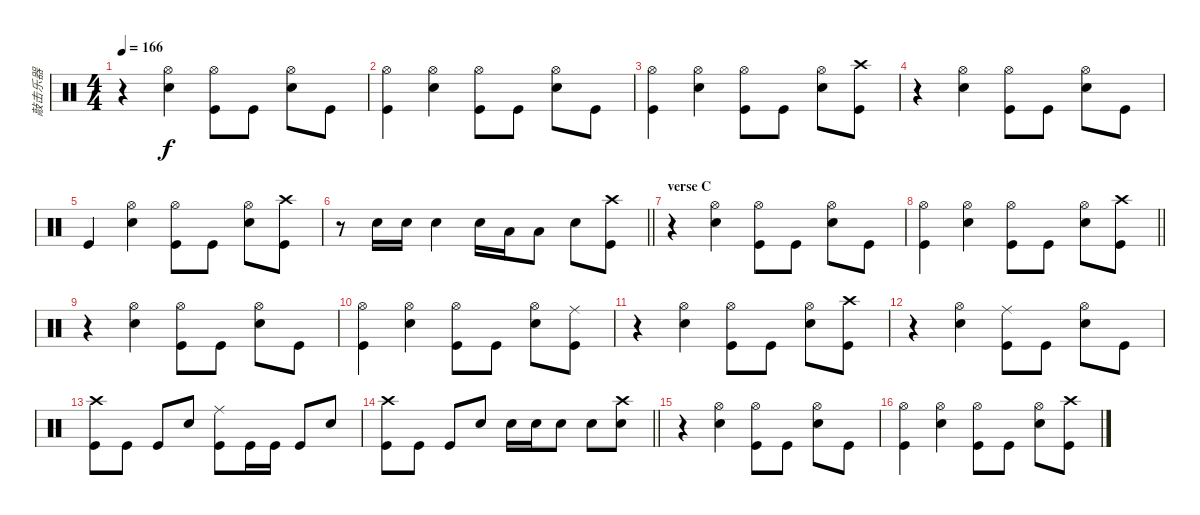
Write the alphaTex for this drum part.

\track ("敲击乐器" "敲击乐器") {instrument percussion}
\staff {score}
\articulation defaults
\ts (4 4)
\section ("" "")
\tempo 166
\clef neutral
\ks c
r.4{dy f} ("Hi-Hat (open)" "Snare (hit) 2").4 ("Kick (hit)" "Hi-Hat (open)").8 "Kick (hit)".8 ("Snare (hit) 2" "Hi-Hat (open)").8 "Kick (hit)".8 |
("Kick (hit)" "Hi-Hat (open)").4 ("Hi-Hat (open)" "Snare (hit) 2").4 ("Kick (hit)" "Hi-Hat (open)").8 "Kick (hit)".8 ("Snare (hit) 2" "Hi-Hat (open)").8 "Kick (hit)".8 |
("Kick (hit)" "Hi-Hat (open)").4 ("Hi-Hat (open)" "Snare (hit) 2").4 ("Kick (hit)" "Hi-Hat (open)").8 "Kick (hit)".8 ("Snare (hit) 2" "Hi-Hat (open)").8 ("Kick (hit)" "Crash high (hit)").8 |
r.4 ("Hi-Hat (open)" "Snare (hit) 2").4 ("Hi-Hat (open)" "Kick (hit)").8 "Kick (hit)".8 ("Snare (hit) 2" "Hi-Hat (open)").8 "Kick (hit)".8 |
"Kick (hit)".4 ("Hi-Hat (open)" "Snare (hit) 2").4 ("Hi-Hat (open)" "Kick (hit)").8 "Kick (hit)".8 ("Snare (hit) 2" "Hi-Hat (open)").8 ("Kick (hit)" "Crash high (hit)").8 |
\barLineRight lightlight
r.8 "Snare (hit) 2".16 "Snare (hit) 2".16 "Snare (hit) 2".4 "Snare (hit) 2".16 "Low Tom (hit)".16 "Low Tom (hit)".8 "Snare (hit) 2".8 ("Kick (hit)" "Crash high (hit)").8 |
\section ("" "verse C")
r.4 ("Hi-Hat (open)" "Snare (hit) 2").4 ("Kick (hit)" "Hi-Hat (open)").8 "Kick (hit)".8 ("Snare (hit) 2" "Hi-Hat (open)").8 "Kick (hit)".8 |
\barLineRight lightlight
("Kick (hit)" "Hi-Hat (open)").4 ("Hi-Hat (open)" "Snare (hit) 2").4 ("Kick (hit)" "Hi-Hat (open)").8 "Kick (hit)".8 ("Snare (hit) 2" "Hi-Hat (open)").8 ("Kick (hit)" "Crash high (hit)").8 |
\section ("" "")
r.4 ("Hi-Hat (open)" "Snare (hit) 2").4 ("Kick (hit)" "Hi-Hat (open)").8 "Kick (hit)".8 ("Snare (hit) 2" "Hi-Hat (open)").8 "Kick (hit)".8 |
("Kick (hit)" "Hi-Hat (open)").4 ("Hi-Hat (open)" "Snare (hit) 2").4 ("Kick (hit)" "Hi-Hat (open)").8 "Kick (hit)".8 ("Snare (hit) 2" "Hi-Hat (open)").8 ("Kick (hit)" "Ride (middle)").8 |
r.4 ("Hi-Hat (open)" "Snare (hit) 2").4 ("Kick (hit)" "Hi-Hat (open)").8 "Kick (hit)".8 ("Snare (hit) 2" "Hi-Hat (open)").8 ("Kick (hit)" "Crash high (hit)").8 |
r.4 ("Hi-Hat (open)" "Snare (hit) 2").4 ("Ride (middle)" "Kick (hit)").8 "Kick (hit)".8 ("Snare (hit) 2" "Hi-Hat (open)").8 "Kick (hit)".8 |
("Kick (hit)" "Crash high (hit)").8 "Kick (hit)".8 "Kick (hit)".8 "Snare (hit) 2".8 ("Kick (hit)" "Ride (middle)").8 "Kick (hit)".16 "Kick (hit)".16 "Kick (hit)".8 "Snare (hit) 2".8 |
\barLineRight lightlight
("Kick (hit)" "Crash high (hit)").8 "Kick (hit)".8 "Kick (hit)".8 "Snare (hit) 2".8 "Snare (hit) 2".16 "Snare (hit) 2".16 "Snare (hit) 2".8 "Snare (hit) 2".8 ("Snare (hit) 2" "Crash high (hit)").8 |
r.4 ("Hi-Hat (open)" "Snare (hit) 2").4 ("Kick (hit)" "Hi-Hat (open)").8 "Kick (hit)".8 ("Snare (hit) 2" "Hi-Hat (open)").8 "Kick (hit)".8 |
("Kick (hit)" "Hi-Hat (open)").4 ("Hi-Hat (open)" "Snare (hit) 2").4 ("Kick (hit)" "Hi-Hat (open)").8 "Kick (hit)".8 ("Snare (hit) 2" "Hi-Hat (open)").8 ("Kick (hit)" "Crash high (hit)").8
